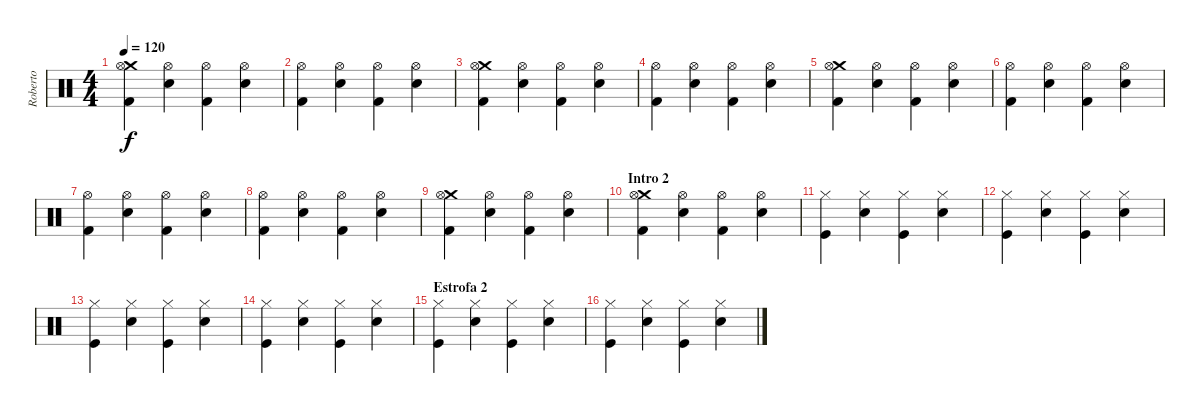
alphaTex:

\track ("Roberto" "Roberto") {instrument percussion}
\staff {score}
\articulation defaults
\ts (4 4)
\tempo 120
\clef neutral
\ks c
("Crash medium (hit)" "Hi-Hat (open)" "Kick (hit) 2").4{dy f} ("Hi-Hat (open)" "Snare (hit) 2").4 ("Hi-Hat (open)" "Kick (hit) 2").4 ("Hi-Hat (open)" "Snare (hit) 2").4 |
("Hi-Hat (open)" "Kick (hit) 2").4 ("Hi-Hat (open)" "Snare (hit) 2").4 ("Hi-Hat (open)" "Kick (hit) 2").4 ("Hi-Hat (open)" "Snare (hit) 2").4 |
("Crash medium (hit)" "Hi-Hat (open)" "Kick (hit) 2").4 ("Hi-Hat (open)" "Snare (hit) 2").4 ("Hi-Hat (open)" "Kick (hit) 2").4 ("Hi-Hat (open)" "Snare (hit) 2").4 |
("Hi-Hat (open)" "Kick (hit) 2").4 ("Hi-Hat (open)" "Snare (hit) 2").4 ("Hi-Hat (open)" "Kick (hit) 2").4 ("Hi-Hat (open)" "Snare (hit) 2").4 |
("Crash medium (hit)" "Hi-Hat (open)" "Kick (hit) 2").4 ("Hi-Hat (open)" "Snare (hit) 2").4 ("Hi-Hat (open)" "Kick (hit) 2").4 ("Hi-Hat (open)" "Snare (hit) 2").4 |
("Hi-Hat (open)" "Kick (hit) 2").4 ("Hi-Hat (open)" "Snare (hit) 2").4 ("Hi-Hat (open)" "Kick (hit) 2").4 ("Hi-Hat (open)" "Snare (hit) 2").4 |
("Hi-Hat (open)" "Kick (hit) 2").4 ("Hi-Hat (open)" "Snare (hit) 2").4 ("Hi-Hat (open)" "Kick (hit) 2").4 ("Hi-Hat (open)" "Snare (hit) 2").4 |
("Hi-Hat (open)" "Kick (hit) 2").4 ("Hi-Hat (open)" "Snare (hit) 2").4 ("Hi-Hat (open)" "Kick (hit) 2").4 ("Hi-Hat (open)" "Snare (hit) 2").4 |
("Crash medium (hit)" "Hi-Hat (open)" "Kick (hit) 2").4{volume 16} ("Hi-Hat (open)" "Snare (hit) 2").4 ("Hi-Hat (open)" "Kick (hit) 2").4 ("Hi-Hat (open)" "Snare (hit) 2").4 |
\section ("" "Intro 2")
("Crash medium (hit)" "Hi-Hat (open)" "Kick (hit) 2").4 ("Hi-Hat (open)" "Snare (hit) 2").4 ("Hi-Hat (open)" "Kick (hit) 2").4 ("Hi-Hat (open)" "Snare (hit) 2").4 |
("Hi-Hat (closed)" "Kick (hit)").4{volume 13} ("Hi-Hat (closed)" "Snare (hit) 2").4 ("Hi-Hat (closed)" "Kick (hit)").4 ("Hi-Hat (closed)" "Snare (hit) 2").4 |
("Hi-Hat (closed)" "Kick (hit)").4 ("Hi-Hat (closed)" "Snare (hit) 2").4 ("Hi-Hat (closed)" "Kick (hit)").4 ("Hi-Hat (closed)" "Snare (hit) 2").4 |
("Hi-Hat (closed)" "Kick (hit)").4 ("Hi-Hat (closed)" "Snare (hit) 2").4 ("Hi-Hat (closed)" "Kick (hit)").4 ("Hi-Hat (closed)" "Snare (hit) 2").4 |
("Hi-Hat (closed)" "Kick (hit)").4 ("Hi-Hat (closed)" "Snare (hit) 2").4 ("Hi-Hat (closed)" "Kick (hit)").4 ("Hi-Hat (closed)" "Snare (hit) 2").4 |
\section ("" "Estrofa 2")
("Hi-Hat (closed)" "Kick (hit)").4 ("Hi-Hat (closed)" "Snare (hit) 2").4 ("Hi-Hat (closed)" "Kick (hit)").4 ("Hi-Hat (closed)" "Snare (hit) 2").4 |
("Hi-Hat (closed)" "Kick (hit)").4 ("Hi-Hat (closed)" "Snare (hit) 2").4 ("Hi-Hat (closed)" "Kick (hit)").4 ("Hi-Hat (closed)" "Snare (hit) 2").4
